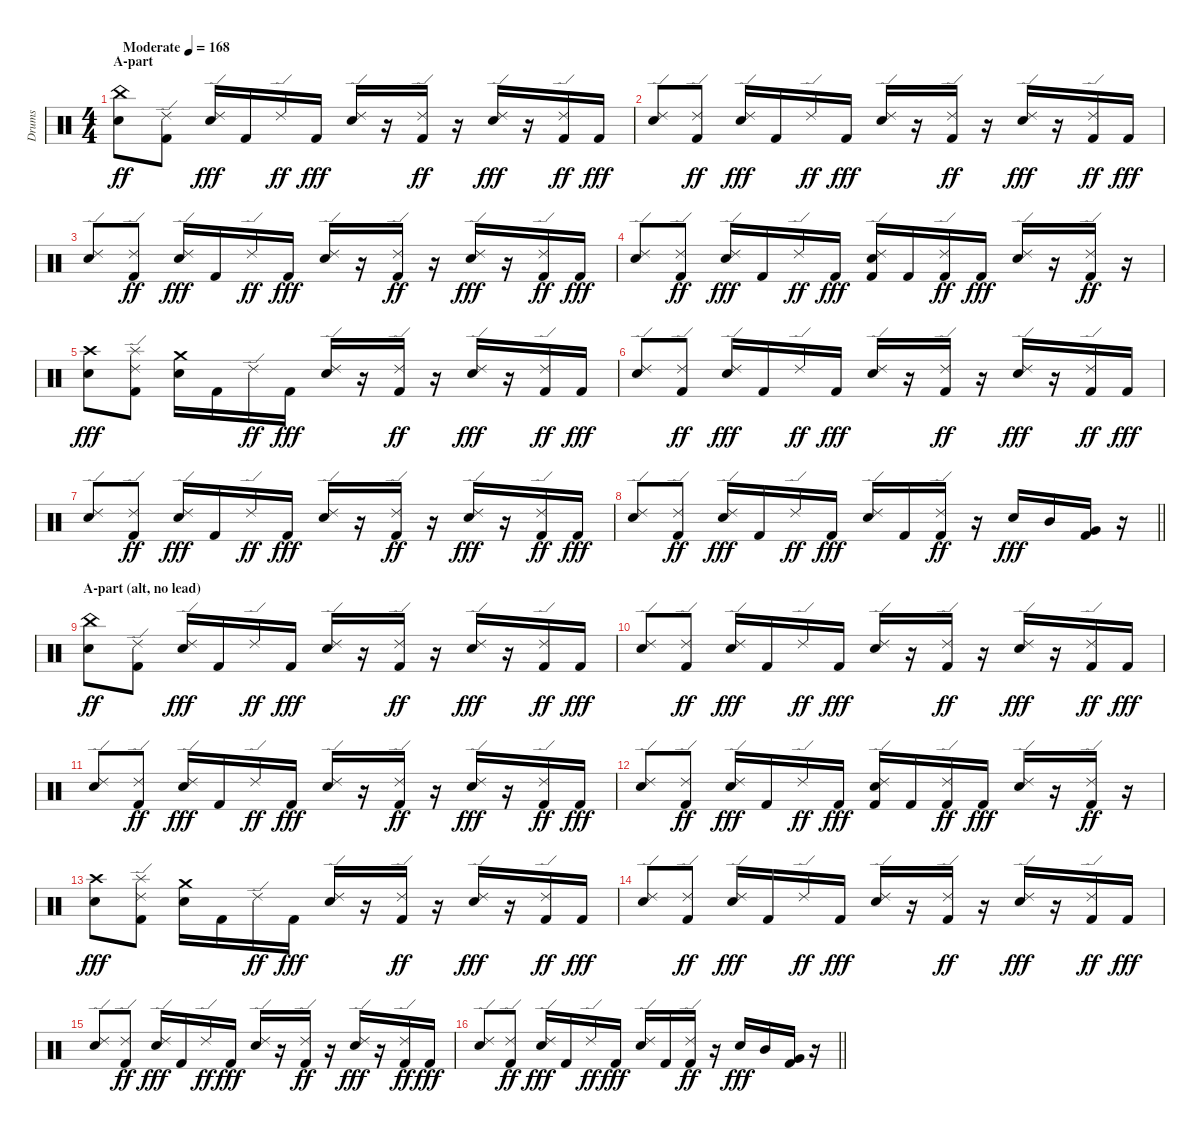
\track ("Drums" "Drums") {instrument percussion}
\staff {score}
\articulation defaults
\ts (4 4)
\section ("" "A-part")
\tempo (168 "Moderate")
\clef neutral
\ks c
("Snare (hit) 2" "China (hit)").8{dy ff} ("Kick (hit) 2" "Ride (edge) 2").8 ("Snare (hit) 2" "Ride (edge) 2").16{dy fff} "Kick (hit) 2".16 "Ride (edge) 2".16{dy ff} "Kick (hit) 2".16{dy fff} ("Snare (hit) 2" "Ride (edge) 2").16 r.16 ("Kick (hit) 2" "Ride (edge) 2").16{dy ff} r.16 ("Snare (hit) 2" "Ride (edge) 2").16{dy fff} r.16 ("Kick (hit) 2" "Ride (edge) 2").16{dy ff} "Kick (hit) 2".16{dy fff} |
("Snare (hit) 2" "Ride (edge) 2").8 ("Kick (hit) 2" "Ride (edge) 2").8{dy ff} ("Snare (hit) 2" "Ride (edge) 2").16{dy fff} "Kick (hit) 2".16 "Ride (edge) 2".16{dy ff} "Kick (hit) 2".16{dy fff} ("Snare (hit) 2" "Ride (edge) 2").16 r.16 ("Kick (hit) 2" "Ride (edge) 2").16{dy ff} r.16 ("Snare (hit) 2" "Ride (edge) 2").16{dy fff} r.16 ("Kick (hit) 2" "Ride (edge) 2").16{dy ff} "Kick (hit) 2".16{dy fff} |
("Snare (hit) 2" "Ride (edge) 2").8 ("Kick (hit) 2" "Ride (edge) 2").8{dy ff} ("Snare (hit) 2" "Ride (edge) 2").16{dy fff} "Kick (hit) 2".16 "Ride (edge) 2".16{dy ff} "Kick (hit) 2".16{dy fff} ("Snare (hit) 2" "Ride (edge) 2").16 r.16 ("Kick (hit) 2" "Ride (edge) 2").16{dy ff} r.16 ("Snare (hit) 2" "Ride (edge) 2").16{dy fff} r.16 ("Kick (hit) 2" "Ride (edge) 2").16{dy ff} "Kick (hit) 2".16{dy fff} |
("Snare (hit) 2" "Ride (edge) 2").8 ("Kick (hit) 2" "Ride (edge) 2").8{dy ff} ("Snare (hit) 2" "Ride (edge) 2").16{dy fff} "Kick (hit) 2".16 "Ride (edge) 2".16{dy ff} "Kick (hit) 2".16{dy fff} ("Kick (hit) 2" "Snare (hit) 2" "Ride (edge) 2").16 "Kick (hit) 2".16 ("Kick (hit) 2" "Ride (edge) 2").16{dy ff} "Kick (hit) 2".16{dy fff} ("Snare (hit) 2" "Ride (edge) 2").16 r.16 ("Kick (hit) 2" "Ride (edge) 2").16{dy ff} r.16 |
("Snare (hit) 2" "Crash high (hit)").8{dy fff} ("Kick (hit) 2" "Ride (edge) 2" "Splash (hit)").8 ("Snare (hit) 2" "Crash medium (hit)").16 "Kick (hit) 2".16 "Ride (edge) 2".16{dy ff} "Kick (hit) 2".16{dy fff} ("Snare (hit) 2" "Ride (edge) 2").16 r.16 ("Kick (hit) 2" "Ride (edge) 2").16{dy ff} r.16 ("Snare (hit) 2" "Ride (edge) 2").16{dy fff} r.16 ("Kick (hit) 2" "Ride (edge) 2").16{dy ff} "Kick (hit) 2".16{dy fff} |
("Snare (hit) 2" "Ride (edge) 2").8 ("Kick (hit) 2" "Ride (edge) 2").8{dy ff} ("Snare (hit) 2" "Ride (edge) 2").16{dy fff} "Kick (hit) 2".16 "Ride (edge) 2".16{dy ff} "Kick (hit) 2".16{dy fff} ("Snare (hit) 2" "Ride (edge) 2").16 r.16 ("Kick (hit) 2" "Ride (edge) 2").16{dy ff} r.16 ("Snare (hit) 2" "Ride (edge) 2").16{dy fff} r.16 ("Kick (hit) 2" "Ride (edge) 2").16{dy ff} "Kick (hit) 2".16{dy fff} |
("Snare (hit) 2" "Ride (edge) 2").8 ("Kick (hit) 2" "Ride (edge) 2").8{dy ff} ("Snare (hit) 2" "Ride (edge) 2").16{dy fff} "Kick (hit) 2".16 "Ride (edge) 2".16{dy ff} "Kick (hit) 2".16{dy fff} ("Snare (hit) 2" "Ride (edge) 2").16 r.16 ("Kick (hit) 2" "Ride (edge) 2").16{dy ff} r.16 ("Snare (hit) 2" "Ride (edge) 2").16{dy fff} r.16 ("Kick (hit) 2" "Ride (edge) 2").16{dy ff} "Kick (hit) 2".16{dy fff} |
\barLineRight lightlight
("Snare (hit) 2" "Ride (edge) 2").8 ("Kick (hit) 2" "Ride (edge) 2").8{dy ff} ("Snare (hit) 2" "Ride (edge) 2").16{dy fff} "Kick (hit) 2".16 "Ride (edge) 2".16{dy ff} "Kick (hit) 2".16{dy fff} ("Snare (hit) 2" "Ride (edge) 2").16 "Kick (hit) 2".16 ("Kick (hit) 2" "Ride (edge) 2").16{dy ff} r.16 "Snare (hit) 2".16{dy fff} "Mid Tom (hit)".16 ("Kick (hit) 2" "Very Low Tom (hit)").16 r.16 |
\section ("" "A-part (alt, no lead)")
("Snare (hit) 2" "China (hit)").8{dy ff} ("Kick (hit) 2" "Ride (edge) 2").8 ("Snare (hit) 2" "Ride (edge) 2").16{dy fff} "Kick (hit) 2".16 "Ride (edge) 2".16{dy ff} "Kick (hit) 2".16{dy fff} ("Snare (hit) 2" "Ride (edge) 2").16 r.16 ("Kick (hit) 2" "Ride (edge) 2").16{dy ff} r.16 ("Snare (hit) 2" "Ride (edge) 2").16{dy fff} r.16 ("Kick (hit) 2" "Ride (edge) 2").16{dy ff} "Kick (hit) 2".16{dy fff} |
("Snare (hit) 2" "Ride (edge) 2").8 ("Kick (hit) 2" "Ride (edge) 2").8{dy ff} ("Snare (hit) 2" "Ride (edge) 2").16{dy fff} "Kick (hit) 2".16 "Ride (edge) 2".16{dy ff} "Kick (hit) 2".16{dy fff} ("Snare (hit) 2" "Ride (edge) 2").16 r.16 ("Kick (hit) 2" "Ride (edge) 2").16{dy ff} r.16 ("Snare (hit) 2" "Ride (edge) 2").16{dy fff} r.16 ("Kick (hit) 2" "Ride (edge) 2").16{dy ff} "Kick (hit) 2".16{dy fff} |
("Snare (hit) 2" "Ride (edge) 2").8 ("Kick (hit) 2" "Ride (edge) 2").8{dy ff} ("Snare (hit) 2" "Ride (edge) 2").16{dy fff} "Kick (hit) 2".16 "Ride (edge) 2".16{dy ff} "Kick (hit) 2".16{dy fff} ("Snare (hit) 2" "Ride (edge) 2").16 r.16 ("Kick (hit) 2" "Ride (edge) 2").16{dy ff} r.16 ("Snare (hit) 2" "Ride (edge) 2").16{dy fff} r.16 ("Kick (hit) 2" "Ride (edge) 2").16{dy ff} "Kick (hit) 2".16{dy fff} |
("Snare (hit) 2" "Ride (edge) 2").8 ("Kick (hit) 2" "Ride (edge) 2").8{dy ff} ("Snare (hit) 2" "Ride (edge) 2").16{dy fff} "Kick (hit) 2".16 "Ride (edge) 2".16{dy ff} "Kick (hit) 2".16{dy fff} ("Kick (hit) 2" "Snare (hit) 2" "Ride (edge) 2").16 "Kick (hit) 2".16 ("Kick (hit) 2" "Ride (edge) 2").16{dy ff} "Kick (hit) 2".16{dy fff} ("Snare (hit) 2" "Ride (edge) 2").16 r.16 ("Kick (hit) 2" "Ride (edge) 2").16{dy ff} r.16 |
("Snare (hit) 2" "Crash high (hit)").8{dy fff} ("Kick (hit) 2" "Ride (edge) 2" "Splash (hit)").8 ("Snare (hit) 2" "Crash medium (hit)").16 "Kick (hit) 2".16 "Ride (edge) 2".16{dy ff} "Kick (hit) 2".16{dy fff} ("Snare (hit) 2" "Ride (edge) 2").16 r.16 ("Kick (hit) 2" "Ride (edge) 2").16{dy ff} r.16 ("Snare (hit) 2" "Ride (edge) 2").16{dy fff} r.16 ("Kick (hit) 2" "Ride (edge) 2").16{dy ff} "Kick (hit) 2".16{dy fff} |
("Snare (hit) 2" "Ride (edge) 2").8 ("Kick (hit) 2" "Ride (edge) 2").8{dy ff} ("Snare (hit) 2" "Ride (edge) 2").16{dy fff} "Kick (hit) 2".16 "Ride (edge) 2".16{dy ff} "Kick (hit) 2".16{dy fff} ("Snare (hit) 2" "Ride (edge) 2").16 r.16 ("Kick (hit) 2" "Ride (edge) 2").16{dy ff} r.16 ("Snare (hit) 2" "Ride (edge) 2").16{dy fff} r.16 ("Kick (hit) 2" "Ride (edge) 2").16{dy ff} "Kick (hit) 2".16{dy fff} |
("Snare (hit) 2" "Ride (edge) 2").8 ("Kick (hit) 2" "Ride (edge) 2").8{dy ff} ("Snare (hit) 2" "Ride (edge) 2").16{dy fff} "Kick (hit) 2".16 "Ride (edge) 2".16{dy ff} "Kick (hit) 2".16{dy fff} ("Snare (hit) 2" "Ride (edge) 2").16 r.16 ("Kick (hit) 2" "Ride (edge) 2").16{dy ff} r.16 ("Snare (hit) 2" "Ride (edge) 2").16{dy fff} r.16 ("Kick (hit) 2" "Ride (edge) 2").16{dy ff} "Kick (hit) 2".16{dy fff} |
\barLineRight lightlight
("Snare (hit) 2" "Ride (edge) 2").8 ("Kick (hit) 2" "Ride (edge) 2").8{dy ff} ("Snare (hit) 2" "Ride (edge) 2").16{dy fff} "Kick (hit) 2".16 "Ride (edge) 2".16{dy ff} "Kick (hit) 2".16{dy fff} ("Snare (hit) 2" "Ride (edge) 2").16 "Kick (hit) 2".16 ("Kick (hit) 2" "Ride (edge) 2").16{dy ff} r.16 "Snare (hit) 2".16{dy fff} "Mid Tom (hit)".16 ("Kick (hit) 2" "Very Low Tom (hit)").16 r.16
